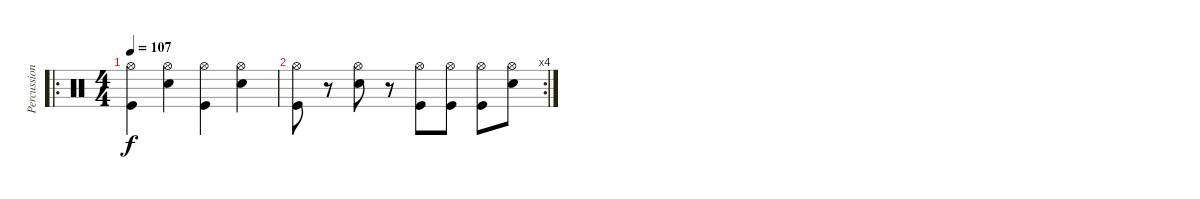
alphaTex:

\track ("Percussion" "Percussion") {instrument percussion}
\staff {score}
\articulation defaults
\ro
\ts (4 4)
\tempo 107
\clef neutral
\ks c
("Hi-Hat (open)" "Kick (hit)").4{dy f} ("Hi-Hat (open)" "Electric Snare (hit)").4 ("Hi-Hat (open)" "Kick (hit)").4 ("Hi-Hat (open)" "Electric Snare (hit)").4 |
\rc 4
("Hi-Hat (open)" "Kick (hit)").8 r.8 ("Hi-Hat (open)" "Electric Snare (hit)").8 r.8 ("Hi-Hat (open)" "Kick (hit)").8 ("Hi-Hat (open)" "Kick (hit)").8 ("Hi-Hat (open)" "Kick (hit)").8 ("Hi-Hat (open)" "Electric Snare (hit)").8
